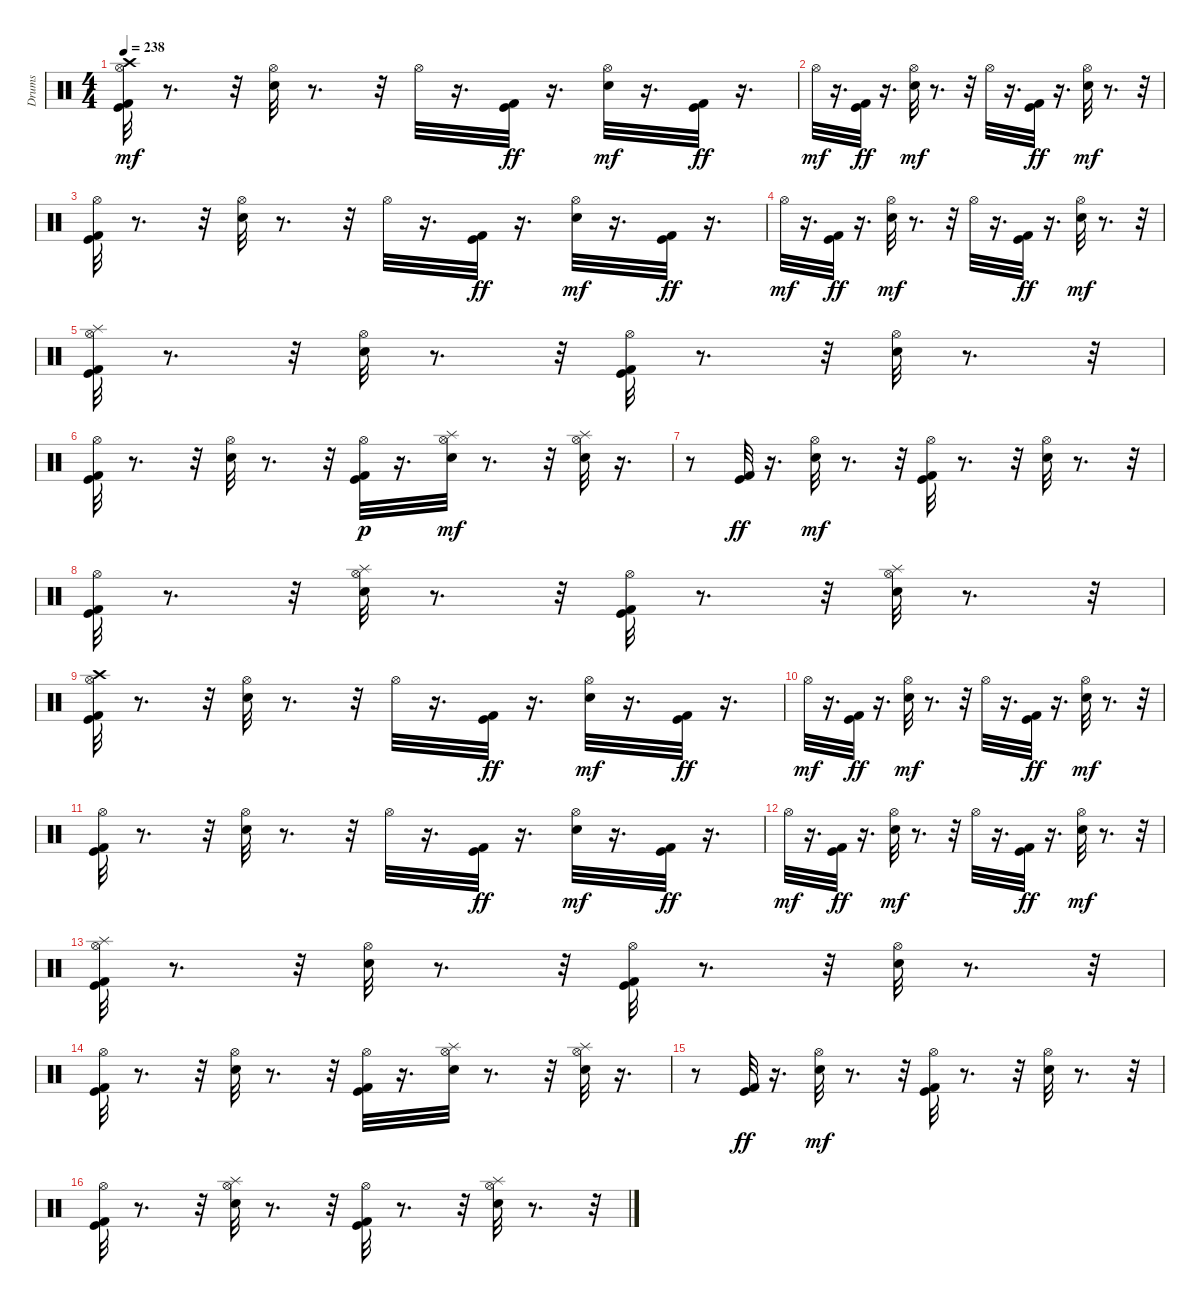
\track ("Drums" "Drums") {instrument percussion}
\staff {score}
\articulation defaults
\ts (4 4)
\tempo 238
\clef neutral
\ks c
("Kick (hit) 2" "Kick (hit)" "Crash high (hit)" "Hi-Hat (open)").32{dy mf} r.8{d} r.32 ("Snare (hit) 2" "Hi-Hat (open)").32 r.8{d} r.32 "Hi-Hat (open)".32 r.16{d} ("Kick (hit) 2" "Kick (hit)").32{dy ff} r.16{d} ("Hi-Hat (open)" "Snare (hit) 2").32{dy mf} r.16{d} ("Kick (hit) 2" "Kick (hit)").32{dy ff} r.16{d} |
"Hi-Hat (open)".32{dy mf} r.16{d} ("Kick (hit) 2" "Kick (hit)").32{dy ff} r.16{d} ("Snare (hit) 2" "Hi-Hat (open)").32{dy mf} r.8{d} r.32 "Hi-Hat (open)".32 r.16{d} ("Kick (hit) 2" "Kick (hit)").32{dy ff} r.16{d} ("Hi-Hat (open)" "Snare (hit) 2").32{dy mf} r.8{d} r.32 |
("Kick (hit) 2" "Kick (hit)" "Hi-Hat (open)").32 r.8{d} r.32 ("Snare (hit) 2" "Hi-Hat (open)").32 r.8{d} r.32 "Hi-Hat (open)".32 r.16{d} ("Kick (hit) 2" "Kick (hit)").32{dy ff} r.16{d} ("Hi-Hat (open)" "Snare (hit) 2").32{dy mf} r.16{d} ("Kick (hit) 2" "Kick (hit)").32{dy ff} r.16{d} |
"Hi-Hat (open)".32{dy mf} r.16{d} ("Kick (hit) 2" "Kick (hit)").32{dy ff} r.16{d} ("Snare (hit) 2" "Hi-Hat (open)").32{dy mf} r.8{d} r.32 "Hi-Hat (open)".32 r.16{d} ("Kick (hit) 2" "Kick (hit)").32{dy ff} r.16{d} ("Hi-Hat (open)" "Snare (hit) 2").32{dy mf} r.8{d} r.32 |
("Kick (hit) 2" "Kick (hit)" "Hi-Hat (open)" "Splash (hit)").32 r.8{d} r.32 ("Snare (hit) 2" "Hi-Hat (open)").32 r.8{d} r.32 ("Kick (hit) 2" "Kick (hit)" "Hi-Hat (open)").32 r.8{d} r.32 ("Snare (hit) 2" "Hi-Hat (open)").32 r.8{d} r.32 |
("Kick (hit) 2" "Kick (hit)" "Hi-Hat (open)").32 r.8{d} r.32 ("Snare (hit) 2" "Hi-Hat (open)").32 r.8{d} r.32 ("Kick (hit) 2" "Kick (hit)" "Hi-Hat (open)").32{dy p} r.16{d} ("Snare (hit) 2" "Splash (hit)" "Hi-Hat (open)").32{dy mf} r.8{d} r.32 ("Snare (hit) 2" "Splash (hit)" "Hi-Hat (open)").32 r.16{d} |
r.8 ("Kick (hit) 2" "Kick (hit)").32{dy ff} r.16{d} ("Snare (hit) 2" "Hi-Hat (open)").32{dy mf} r.8{d} r.32 ("Kick (hit) 2" "Kick (hit)" "Hi-Hat (open)").32 r.8{d} r.32 ("Snare (hit) 2" "Hi-Hat (open)").32 r.8{d} r.32 |
("Kick (hit) 2" "Kick (hit)" "Hi-Hat (open)").32 r.8{d} r.32 ("Snare (hit) 2" "Hi-Hat (open)" "Splash (hit)").32 r.8{d} r.32 ("Kick (hit) 2" "Kick (hit)" "Hi-Hat (open)").32 r.8{d} r.32 ("Snare (hit) 2" "Hi-Hat (open)" "Splash (hit)").32 r.8{d} r.32 |
("Kick (hit) 2" "Kick (hit)" "Crash high (hit)" "Hi-Hat (open)").32 r.8{d} r.32 ("Snare (hit) 2" "Hi-Hat (open)").32 r.8{d} r.32 "Hi-Hat (open)".32 r.16{d} ("Kick (hit) 2" "Kick (hit)").32{dy ff} r.16{d} ("Hi-Hat (open)" "Snare (hit) 2").32{dy mf} r.16{d} ("Kick (hit) 2" "Kick (hit)").32{dy ff} r.16{d} |
"Hi-Hat (open)".32{dy mf} r.16{d} ("Kick (hit) 2" "Kick (hit)").32{dy ff} r.16{d} ("Snare (hit) 2" "Hi-Hat (open)").32{dy mf} r.8{d} r.32 "Hi-Hat (open)".32 r.16{d} ("Kick (hit) 2" "Kick (hit)").32{dy ff} r.16{d} ("Hi-Hat (open)" "Snare (hit) 2").32{dy mf} r.8{d} r.32 |
("Kick (hit) 2" "Kick (hit)" "Hi-Hat (open)").32 r.8{d} r.32 ("Snare (hit) 2" "Hi-Hat (open)").32 r.8{d} r.32 "Hi-Hat (open)".32 r.16{d} ("Kick (hit) 2" "Kick (hit)").32{dy ff} r.16{d} ("Hi-Hat (open)" "Snare (hit) 2").32{dy mf} r.16{d} ("Kick (hit) 2" "Kick (hit)").32{dy ff} r.16{d} |
"Hi-Hat (open)".32{dy mf} r.16{d} ("Kick (hit) 2" "Kick (hit)").32{dy ff} r.16{d} ("Snare (hit) 2" "Hi-Hat (open)").32{dy mf} r.8{d} r.32 "Hi-Hat (open)".32 r.16{d} ("Kick (hit) 2" "Kick (hit)").32{dy ff} r.16{d} ("Hi-Hat (open)" "Snare (hit) 2").32{dy mf} r.8{d} r.32 |
("Kick (hit) 2" "Kick (hit)" "Hi-Hat (open)" "Splash (hit)").32 r.8{d} r.32 ("Snare (hit) 2" "Hi-Hat (open)").32 r.8{d} r.32 ("Kick (hit) 2" "Kick (hit)" "Hi-Hat (open)").32 r.8{d} r.32 ("Snare (hit) 2" "Hi-Hat (open)").32 r.8{d} r.32 |
("Kick (hit) 2" "Kick (hit)" "Hi-Hat (open)").32 r.8{d} r.32 ("Snare (hit) 2" "Hi-Hat (open)").32 r.8{d} r.32 ("Kick (hit) 2" "Kick (hit)" "Hi-Hat (open)").32 r.16{d} ("Snare (hit) 2" "Splash (hit)" "Hi-Hat (open)").32 r.8{d} r.32 ("Snare (hit) 2" "Splash (hit)" "Hi-Hat (open)").32 r.16{d} |
r.8 ("Kick (hit) 2" "Kick (hit)").32{dy ff} r.16{d} ("Snare (hit) 2" "Hi-Hat (open)").32{dy mf} r.8{d} r.32 ("Kick (hit) 2" "Kick (hit)" "Hi-Hat (open)").32 r.8{d} r.32 ("Snare (hit) 2" "Hi-Hat (open)").32 r.8{d} r.32 |
("Kick (hit) 2" "Kick (hit)" "Hi-Hat (open)").32 r.8{d} r.32 ("Snare (hit) 2" "Hi-Hat (open)" "Splash (hit)").32 r.8{d} r.32 ("Kick (hit) 2" "Kick (hit)" "Hi-Hat (open)").32 r.8{d} r.32 ("Snare (hit) 2" "Hi-Hat (open)" "Splash (hit)").32 r.8{d} r.32
